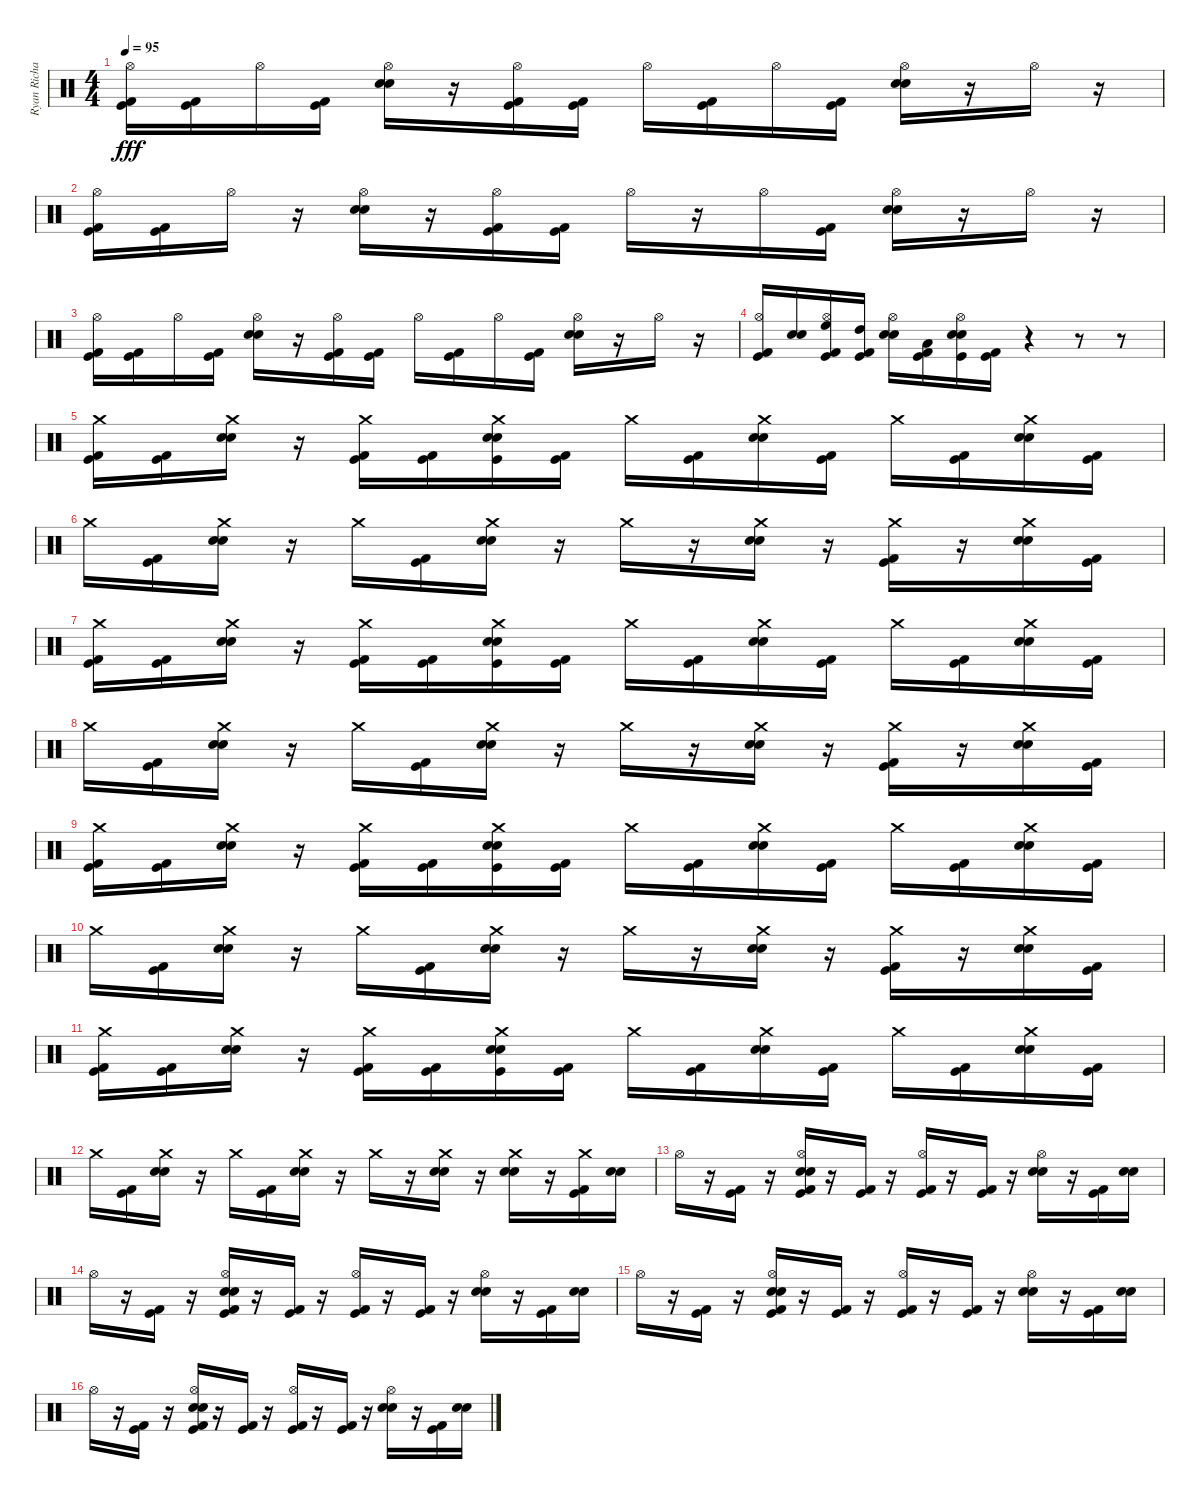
\track ("Ryan Richards" "Ryan Richa") {instrument percussion}
\staff {score}
\articulation defaults
\ts (4 4)
\tempo 95
\clef neutral
\ks c
("Kick (hit)" "Hi-Hat (open)" "Kick (hit) 2").16{dy fff} ("Kick (hit)" "Kick (hit) 2").16 "Hi-Hat (open)".16 ("Kick (hit)" "Kick (hit) 2").16 ("Hi-Hat (open)" "Electric Snare (hit)" "Snare (hit) 2").16 r.16 ("Kick (hit)" "Hi-Hat (open)" "Kick (hit) 2").16 ("Kick (hit)" "Kick (hit) 2").16 "Hi-Hat (open)".16 ("Kick (hit)" "Kick (hit) 2").16 "Hi-Hat (open)".16 ("Kick (hit)" "Kick (hit) 2").16 ("Hi-Hat (open)" "Electric Snare (hit)" "Snare (hit) 2").16 r.16 "Hi-Hat (open)".16 r.16 |
("Kick (hit)" "Hi-Hat (open)" "Kick (hit) 2").16 ("Kick (hit)" "Kick (hit) 2").16 "Hi-Hat (open)".16 r.16 ("Hi-Hat (open)" "Electric Snare (hit)" "Snare (hit) 2").16 r.16 ("Kick (hit)" "Hi-Hat (open)" "Kick (hit) 2").16 ("Kick (hit)" "Kick (hit) 2").16 "Hi-Hat (open)".16 r.16 "Hi-Hat (open)".16 ("Kick (hit)" "Kick (hit) 2").16 ("Hi-Hat (open)" "Electric Snare (hit)" "Snare (hit) 2").16 r.16 "Hi-Hat (open)".16 r.16 |
("Kick (hit)" "Hi-Hat (open)" "Kick (hit) 2").16 ("Kick (hit)" "Kick (hit) 2").16 "Hi-Hat (open)".16 ("Kick (hit)" "Kick (hit) 2").16 ("Hi-Hat (open)" "Electric Snare (hit)" "Snare (hit) 2").16 r.16 ("Kick (hit)" "Hi-Hat (open)" "Kick (hit) 2").16 ("Kick (hit)" "Kick (hit) 2").16 "Hi-Hat (open)".16 ("Kick (hit)" "Kick (hit) 2").16 "Hi-Hat (open)".16 ("Kick (hit)" "Kick (hit) 2").16 ("Hi-Hat (open)" "Electric Snare (hit)" "Snare (hit) 2").16 r.16 "Hi-Hat (open)".16 r.16 |
("Kick (hit)" "Hi-Hat (open)" "Kick (hit) 2").16 ("Electric Snare (hit)" "Snare (hit) 2").16 ("Kick (hit)" "Hi-Hat (open)" "High Floor Tom (hit)" "Kick (hit) 2").16 ("Kick (hit)" "High Tom (hit)" "Kick (hit) 2").16 ("Hi-Hat (open)" "Electric Snare (hit)" "Snare (hit) 2").16 ("Kick (hit)" "Low Tom (hit)" "Kick (hit) 2").16 ("Kick (hit)" "Hi-Hat (open)" "Electric Snare (hit)" "Snare (hit) 2").16 ("Kick (hit)" "Kick (hit) 2").16 r.4 r.8 r.8 |
("Kick (hit)" "Crash medium (hit)" "Kick (hit) 2").16 ("Kick (hit)" "Kick (hit) 2").16 ("Crash medium (hit)" "Electric Snare (hit)" "Snare (hit) 2").16 r.16 ("Kick (hit)" "Crash medium (hit)" "Kick (hit) 2").16 ("Kick (hit)" "Kick (hit) 2").16 ("Kick (hit)" "Crash medium (hit)" "Electric Snare (hit)" "Snare (hit) 2").16 ("Kick (hit)" "Kick (hit) 2").16 "Crash medium (hit)".16 ("Kick (hit)" "Kick (hit) 2").16 ("Crash medium (hit)" "Electric Snare (hit)" "Snare (hit) 2").16 ("Kick (hit)" "Kick (hit) 2").16 "Crash medium (hit)".16 ("Kick (hit)" "Kick (hit) 2").16 ("Crash medium (hit)" "Electric Snare (hit)" "Snare (hit) 2").16 ("Kick (hit)" "Kick (hit) 2").16 |
"Crash medium (hit)".16 ("Kick (hit)" "Kick (hit) 2").16 ("Crash medium (hit)" "Electric Snare (hit)" "Snare (hit) 2").16 r.16 "Crash medium (hit)".16 ("Kick (hit)" "Kick (hit) 2").16 ("Crash medium (hit)" "Electric Snare (hit)" "Snare (hit) 2").16 r.16 "Crash medium (hit)".16 r.16 ("Crash medium (hit)" "Electric Snare (hit)" "Snare (hit) 2").16 r.16 ("Kick (hit)" "Crash medium (hit)" "Kick (hit) 2").16 r.16 ("Crash medium (hit)" "Electric Snare (hit)" "Snare (hit) 2").16 ("Kick (hit)" "Kick (hit) 2").16 |
("Kick (hit)" "Crash medium (hit)" "Kick (hit) 2").16 ("Kick (hit)" "Kick (hit) 2").16 ("Crash medium (hit)" "Electric Snare (hit)" "Snare (hit) 2").16 r.16 ("Kick (hit)" "Crash medium (hit)" "Kick (hit) 2").16 ("Kick (hit)" "Kick (hit) 2").16 ("Kick (hit)" "Crash medium (hit)" "Electric Snare (hit)" "Snare (hit) 2").16 ("Kick (hit)" "Kick (hit) 2").16 "Crash medium (hit)".16 ("Kick (hit)" "Kick (hit) 2").16 ("Crash medium (hit)" "Electric Snare (hit)" "Snare (hit) 2").16 ("Kick (hit)" "Kick (hit) 2").16 "Crash medium (hit)".16 ("Kick (hit)" "Kick (hit) 2").16 ("Crash medium (hit)" "Electric Snare (hit)" "Snare (hit) 2").16 ("Kick (hit)" "Kick (hit) 2").16 |
"Crash medium (hit)".16 ("Kick (hit)" "Kick (hit) 2").16 ("Crash medium (hit)" "Electric Snare (hit)" "Snare (hit) 2").16 r.16 "Crash medium (hit)".16 ("Kick (hit)" "Kick (hit) 2").16 ("Crash medium (hit)" "Electric Snare (hit)" "Snare (hit) 2").16 r.16 "Crash medium (hit)".16 r.16 ("Crash medium (hit)" "Electric Snare (hit)" "Snare (hit) 2").16 r.16 ("Kick (hit)" "Crash medium (hit)" "Kick (hit) 2").16 r.16 ("Crash medium (hit)" "Electric Snare (hit)" "Snare (hit) 2").16 ("Kick (hit)" "Kick (hit) 2").16 |
("Kick (hit)" "Crash medium (hit)" "Kick (hit) 2").16 ("Kick (hit)" "Kick (hit) 2").16 ("Crash medium (hit)" "Electric Snare (hit)" "Snare (hit) 2").16 r.16 ("Kick (hit)" "Crash medium (hit)" "Kick (hit) 2").16 ("Kick (hit)" "Kick (hit) 2").16 ("Kick (hit)" "Crash medium (hit)" "Electric Snare (hit)" "Snare (hit) 2").16 ("Kick (hit)" "Kick (hit) 2").16 "Crash medium (hit)".16 ("Kick (hit)" "Kick (hit) 2").16 ("Crash medium (hit)" "Electric Snare (hit)" "Snare (hit) 2").16 ("Kick (hit)" "Kick (hit) 2").16 "Crash medium (hit)".16 ("Kick (hit)" "Kick (hit) 2").16 ("Crash medium (hit)" "Electric Snare (hit)" "Snare (hit) 2").16 ("Kick (hit)" "Kick (hit) 2").16 |
"Crash medium (hit)".16 ("Kick (hit)" "Kick (hit) 2").16 ("Crash medium (hit)" "Electric Snare (hit)" "Snare (hit) 2").16 r.16 "Crash medium (hit)".16 ("Kick (hit)" "Kick (hit) 2").16 ("Crash medium (hit)" "Electric Snare (hit)" "Snare (hit) 2").16 r.16 "Crash medium (hit)".16 r.16 ("Crash medium (hit)" "Electric Snare (hit)" "Snare (hit) 2").16 r.16 ("Kick (hit)" "Crash medium (hit)" "Kick (hit) 2").16 r.16 ("Crash medium (hit)" "Electric Snare (hit)" "Snare (hit) 2").16 ("Kick (hit)" "Kick (hit) 2").16 |
("Kick (hit)" "Crash medium (hit)" "Kick (hit) 2").16 ("Kick (hit)" "Kick (hit) 2").16 ("Crash medium (hit)" "Electric Snare (hit)" "Snare (hit) 2").16 r.16 ("Kick (hit)" "Crash medium (hit)" "Kick (hit) 2").16 ("Kick (hit)" "Kick (hit) 2").16 ("Kick (hit)" "Crash medium (hit)" "Electric Snare (hit)" "Snare (hit) 2").16 ("Kick (hit)" "Kick (hit) 2").16 "Crash medium (hit)".16 ("Kick (hit)" "Kick (hit) 2").16 ("Crash medium (hit)" "Electric Snare (hit)" "Snare (hit) 2").16 ("Kick (hit)" "Kick (hit) 2").16 "Crash medium (hit)".16 ("Kick (hit)" "Kick (hit) 2").16 ("Crash medium (hit)" "Electric Snare (hit)" "Snare (hit) 2").16 ("Kick (hit)" "Kick (hit) 2").16 |
"Crash medium (hit)".16 ("Kick (hit)" "Kick (hit) 2").16 ("Crash medium (hit)" "Electric Snare (hit)" "Snare (hit) 2").16 r.16 "Crash medium (hit)".16 ("Kick (hit)" "Kick (hit) 2").16 ("Crash medium (hit)" "Electric Snare (hit)" "Snare (hit) 2").16 r.16 "Crash medium (hit)".16 r.16 ("Crash medium (hit)" "Electric Snare (hit)" "Snare (hit) 2").16 r.16 ("Crash medium (hit)" "Electric Snare (hit)" "Snare (hit) 2").16 r.16 ("Kick (hit)" "Crash medium (hit)" "Kick (hit) 2").16 ("Snare (hit) 2" "Electric Snare (hit)").16 |
"Hi-Hat (open)".16 r.16 ("Kick (hit)" "Kick (hit) 2").16 r.16 ("Kick (hit)" "Hi-Hat (open)" "Electric Snare (hit)" "Snare (hit) 2" "Kick (hit) 2").16 r.16 ("Kick (hit)" "Kick (hit) 2").16 r.16 ("Kick (hit)" "Hi-Hat (open)" "Kick (hit) 2").16 r.16 ("Kick (hit)" "Kick (hit) 2").16 r.16 ("Hi-Hat (open)" "Electric Snare (hit)" "Snare (hit) 2").16 r.16 ("Kick (hit)" "Kick (hit) 2").16 ("Snare (hit) 2" "Electric Snare (hit)").16 |
"Hi-Hat (open)".16 r.16 ("Kick (hit)" "Kick (hit) 2").16 r.16 ("Kick (hit)" "Hi-Hat (open)" "Electric Snare (hit)" "Snare (hit) 2" "Kick (hit) 2").16 r.16 ("Kick (hit)" "Kick (hit) 2").16 r.16 ("Kick (hit)" "Hi-Hat (open)" "Kick (hit) 2").16 r.16 ("Kick (hit)" "Kick (hit) 2").16 r.16 ("Hi-Hat (open)" "Electric Snare (hit)" "Snare (hit) 2").16 r.16 ("Kick (hit)" "Kick (hit) 2").16 ("Snare (hit) 2" "Electric Snare (hit)").16 |
"Hi-Hat (open)".16 r.16 ("Kick (hit)" "Kick (hit) 2").16 r.16 ("Kick (hit)" "Hi-Hat (open)" "Electric Snare (hit)" "Snare (hit) 2" "Kick (hit) 2").16 r.16 ("Kick (hit)" "Kick (hit) 2").16 r.16 ("Kick (hit)" "Hi-Hat (open)" "Kick (hit) 2").16 r.16 ("Kick (hit)" "Kick (hit) 2").16 r.16 ("Hi-Hat (open)" "Electric Snare (hit)" "Snare (hit) 2").16 r.16 ("Kick (hit)" "Kick (hit) 2").16 ("Snare (hit) 2" "Electric Snare (hit)").16 |
"Hi-Hat (open)".16 r.16 ("Kick (hit)" "Kick (hit) 2").16 r.16 ("Kick (hit)" "Hi-Hat (open)" "Electric Snare (hit)" "Snare (hit) 2" "Kick (hit) 2").16 r.16 ("Kick (hit)" "Kick (hit) 2").16 r.16 ("Kick (hit)" "Hi-Hat (open)" "Kick (hit) 2").16 r.16 ("Kick (hit)" "Kick (hit) 2").16 r.16 ("Hi-Hat (open)" "Electric Snare (hit)" "Snare (hit) 2").16 r.16 ("Kick (hit)" "Kick (hit) 2").16 ("Snare (hit) 2" "Electric Snare (hit)").16
